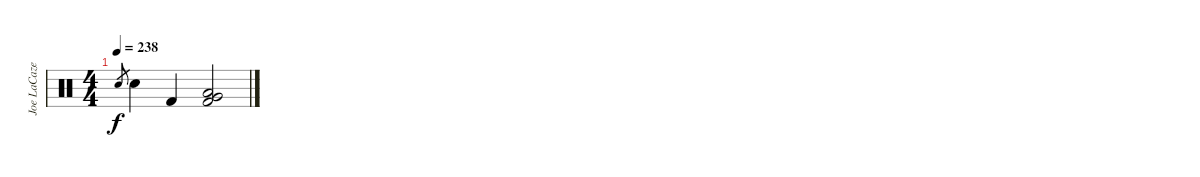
\track ("Joe LaCaze" "Joe LaCaze") {instrument percussion}
\staff {score}
\articulation defaults
\ts (4 4)
\tempo 238
\clef neutral
\ks c "Electric Snare (hit)".8{gr dy f} "Electric Snare (hit)".4 "Kick (hit) 2".4
("Very Low Tom (hit)" "Low Floor Tom (hit)" "Kick (hit) 2").2
